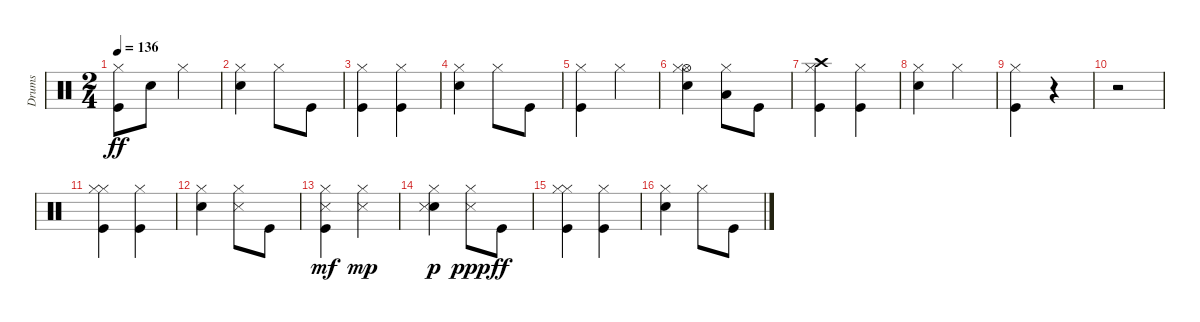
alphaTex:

\track ("Drums" "Drums") {instrument percussion}
\staff {score}
\articulation defaults
\ts (2 4)
\tempo 136
\clef neutral
\ks c
("Hi-Hat (closed)" "Kick (hit)").8{dy ff} "Snare (hit) 2".8 "Hi-Hat (closed)".4 |
("Hi-Hat (closed)" "Snare (hit) 2").4 "Hi-Hat (closed)".8 "Kick (hit)".8 |
("Kick (hit)" "Hi-Hat (closed)").4 ("Kick (hit)" "Hi-Hat (closed)").4 |
("Hi-Hat (closed)" "Snare (hit) 2").4 "Hi-Hat (closed)".8 "Kick (hit)".8 |
("Hi-Hat (closed)" "Kick (hit)").4 "Hi-Hat (closed)".4 |
("Hi-Hat (open)" "Hi-Hat (closed)" "Snare (hit) 2").4 ("Low Tom (hit)" "Hi-Hat (closed)").8 "Kick (hit)".8 |
("Crash high (hit)" "Kick (hit)" "Hi-Hat (closed)").4 ("Kick (hit)" "Hi-Hat (closed)").4 |
("Hi-Hat (closed)" "Snare (hit) 2").4 "Hi-Hat (closed)".4 |
("Hi-Hat (closed)" "Kick (hit)").4 r.4 |
r.2 |
("Kick (hit)" "Hi-Hat (closed)" "Hi-Hat (closed)").4 ("Kick (hit)" "Hi-Hat (closed)").4 |
("Hi-Hat (closed)" "Snare (hit) 2").4 ("Hi-Hat (closed)" "Snare (side stick) 3").8 "Kick (hit)".8 |
("Kick (hit)" "Hi-Hat (closed)" "Snare (side stick) 3").4{dy mf} ("Hi-Hat (closed)" "Snare (side stick) 3").4{dy mp} |
("Hi-Hat (closed)" "Snare (hit) 2" "Snare (side stick) 3").4{dy p} ("Hi-Hat (closed)" "Snare (side stick) 3").8{dy ppp} "Kick (hit)".8{dy ff} |
("Kick (hit)" "Hi-Hat (closed)" "Hi-Hat (closed)").4 ("Kick (hit)" "Hi-Hat (closed)").4 |
("Hi-Hat (closed)" "Snare (hit) 2").4 "Hi-Hat (closed)".8 "Kick (hit)".8
